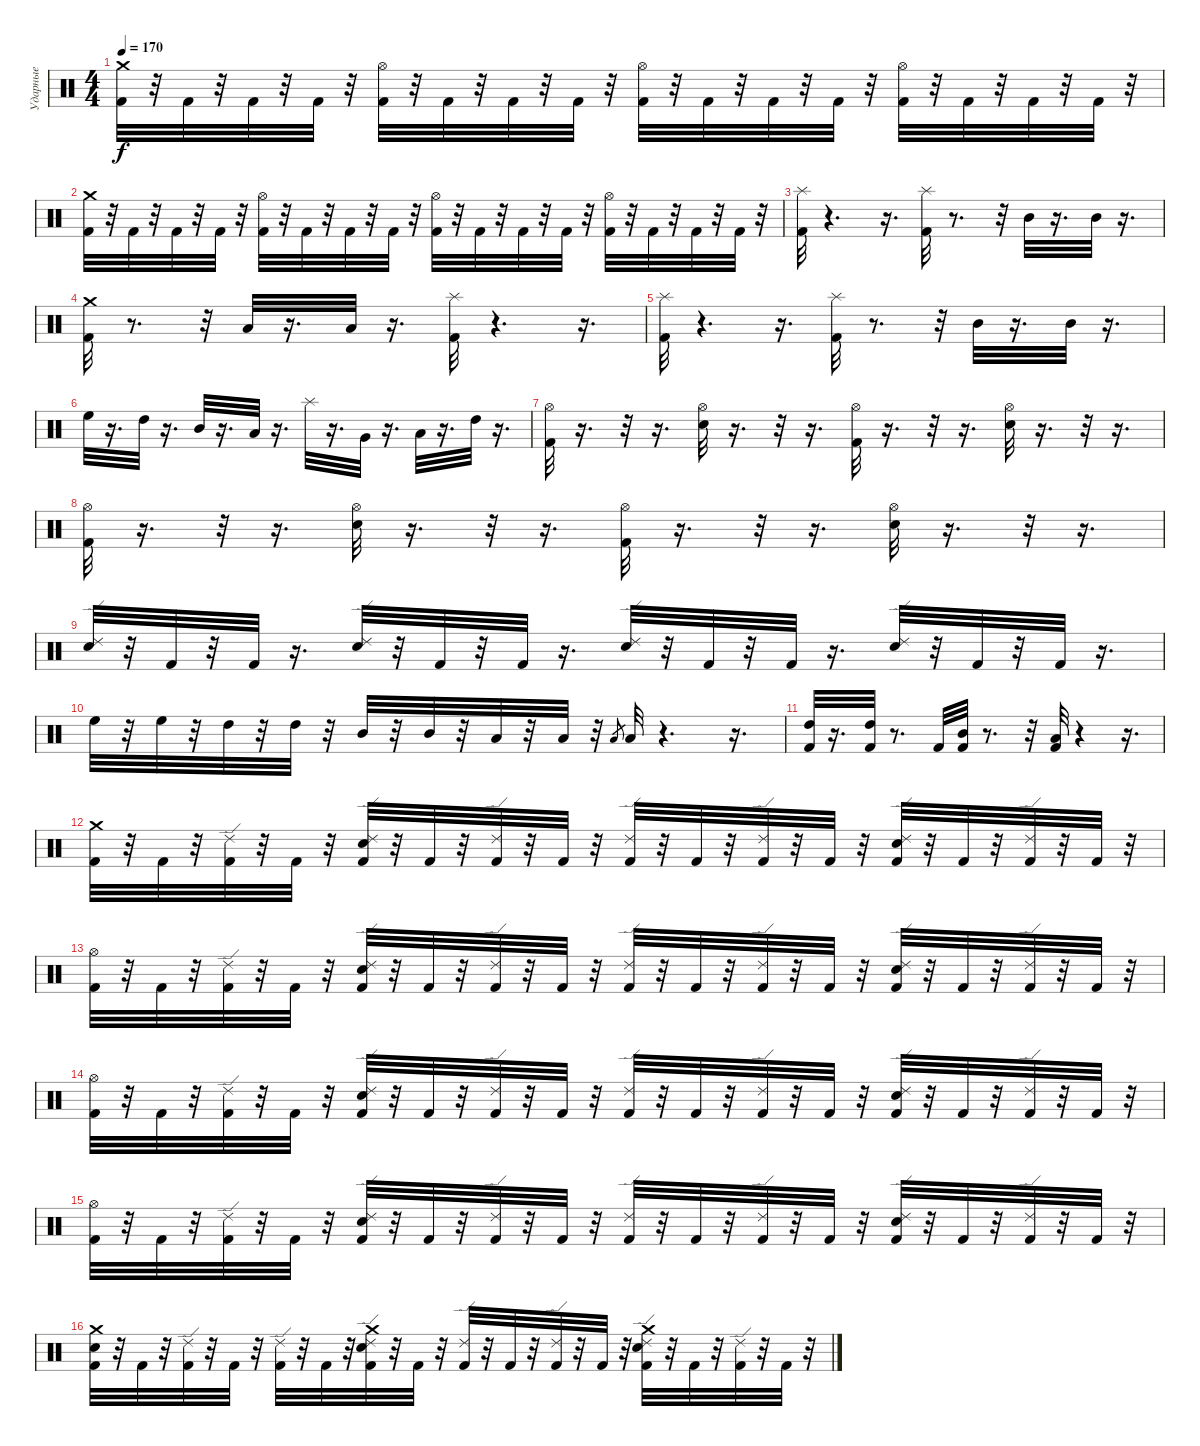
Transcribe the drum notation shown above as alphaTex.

\track ("Ударные" "Ударные") {instrument percussion}
\staff {score}
\articulation defaults
\ts (4 4)
\tempo 170
\clef neutral
\ks c
("Crash medium (hit)" "Kick (hit) 2").32{dy f} r.32 "Kick (hit) 2".32 r.32 "Kick (hit) 2".32 r.32 "Kick (hit) 2".32 r.32 ("Hi-Hat (open)" "Kick (hit) 2").32 r.32 "Kick (hit) 2".32 r.32 "Kick (hit) 2".32 r.32 "Kick (hit) 2".32 r.32 ("Hi-Hat (open)" "Kick (hit) 2").32 r.32 "Kick (hit) 2".32 r.32 "Kick (hit) 2".32 r.32 "Kick (hit) 2".32 r.32 ("Hi-Hat (open)" "Kick (hit) 2").32 r.32 "Kick (hit) 2".32 r.32 "Kick (hit) 2".32 r.32 "Kick (hit) 2".32 r.32 |
("Crash medium (hit)" "Kick (hit) 2").32 r.32 "Kick (hit) 2".32 r.32 "Kick (hit) 2".32 r.32 "Kick (hit) 2".32 r.32 ("Hi-Hat (open)" "Kick (hit) 2").32 r.32 "Kick (hit) 2".32 r.32 "Kick (hit) 2".32 r.32 "Kick (hit) 2".32 r.32 ("Hi-Hat (open)" "Kick (hit) 2").32 r.32 "Kick (hit) 2".32 r.32 "Kick (hit) 2".32 r.32 "Kick (hit) 2".32 r.32 ("Hi-Hat (open)" "Kick (hit) 2").32 r.32 "Kick (hit) 2".32 r.32 "Kick (hit) 2".32 r.32 "Kick (hit) 2".32 r.32 |
("Splash (hit)" "Kick (hit) 2").32 r.4{d} r.16{d} ("Splash (hit)" "Kick (hit) 2").32 r.8{d} r.32 "Mid Tom (hit)".32 r.16{d} "Mid Tom (hit)".32 r.16{d} |
("Crash medium (hit)" "Kick (hit) 2").32 r.8{d} r.32 "Low Tom (hit)".32 r.16{d} "Low Tom (hit)".32 r.16{d} ("Splash (hit)" "Kick (hit) 2").32 r.4{d} r.16{d} |
("Splash (hit)" "Kick (hit) 2").32 r.4{d} r.16{d} ("Splash (hit)" "Kick (hit) 2").32 r.8{d} r.32 "Mid Tom (hit)".32 r.16{d} "Mid Tom (hit)".32 r.16{d} |
"High Floor Tom (hit)".32 r.16{d} "High Tom (hit)".32 r.16{d} "Mid Tom (hit)".32 r.16{d} "Low Tom (hit)".32 r.16{d} "Splash (hit)".32 r.16{d} "Very Low Tom (hit)".32 r.16{d} "Low Tom (hit)".32 r.16{d} "High Tom (hit)".32 r.16{d} |
("Hi-Hat (open)" "Kick (hit) 2").32 r.16{d} r.32 r.16{d} ("Hi-Hat (open)" "Snare (hit) 2").32 r.16{d} r.32 r.16{d} ("Hi-Hat (open)" "Kick (hit) 2").32 r.16{d} r.32 r.16{d} ("Hi-Hat (open)" "Snare (hit) 2").32 r.16{d} r.32 r.16{d} |
("Hi-Hat (open)" "Kick (hit) 2").32 r.16{d} r.32 r.16{d} ("Hi-Hat (open)" "Snare (hit) 2").32 r.16{d} r.32 r.16{d} ("Hi-Hat (open)" "Kick (hit) 2").32 r.16{d} r.32 r.16{d} ("Hi-Hat (open)" "Snare (hit) 2").32 r.16{d} r.32 r.16{d} |
("Electric Snare (hit)" "Ride (edge) 2").32 r.32 "Kick (hit) 2".32 r.32 "Kick (hit) 2".32 r.16{d} ("Electric Snare (hit)" "Ride (edge) 2").32 r.32 "Kick (hit) 2".32 r.32 "Kick (hit) 2".32 r.16{d} ("Electric Snare (hit)" "Ride (edge) 2").32 r.32 "Kick (hit) 2".32 r.32 "Kick (hit) 2".32 r.16{d} ("Electric Snare (hit)" "Ride (edge) 2").32 r.32 "Kick (hit) 2".32 r.32 "Kick (hit) 2".32 r.16{d} |
"High Floor Tom (hit)".32 r.32 "High Floor Tom (hit)".32 r.32 "High Tom (hit)".32 r.32 "High Tom (hit)".32 r.32 "Mid Tom (hit)".32 r.32 "Mid Tom (hit)".32 r.32 "Low Tom (hit)".32 r.32 "Low Tom (hit)".32 r.32 "Low Tom (hit)".8{gr} "Low Tom (hit)".32 r.4{d} r.16{d} |
("High Tom (hit)" "Kick (hit) 2").32 r.16{d} ("High Tom (hit)" "Kick (hit) 2").32 r.8{d} "Kick (hit) 2".32 ("Mid Tom (hit)" "Kick (hit) 2").32 r.8{d} r.32 ("Low Tom (hit)" "Kick (hit) 2").32 r.4 r.16{d} |
("Crash medium (hit)" "Kick (hit) 2").32 r.32 "Kick (hit) 2".32 r.32 ("Ride (edge) 2" "Kick (hit) 2").32 r.32 "Kick (hit) 2".32 r.32 ("Ride (edge) 2" "Electric Snare (hit)" "Kick (hit) 2").32 r.32 "Kick (hit) 2".32 r.32 ("Ride (edge) 2" "Kick (hit) 2").32 r.32 "Kick (hit) 2".32 r.32 ("Ride (edge) 2" "Kick (hit) 2").32 r.32 "Kick (hit) 2".32 r.32 ("Ride (edge) 2" "Kick (hit) 2").32 r.32 "Kick (hit) 2".32 r.32 ("Ride (edge) 2" "Electric Snare (hit)" "Kick (hit) 2").32 r.32 "Kick (hit) 2".32 r.32 ("Ride (edge) 2" "Kick (hit) 2").32 r.32 "Kick (hit) 2".32 r.32 |
("Hi-Hat (open)" "Kick (hit) 2").32 r.32 "Kick (hit) 2".32 r.32 ("Ride (edge) 2" "Kick (hit) 2").32 r.32 "Kick (hit) 2".32 r.32 ("Ride (edge) 2" "Electric Snare (hit)" "Kick (hit) 2").32 r.32 "Kick (hit) 2".32 r.32 ("Ride (edge) 2" "Kick (hit) 2").32 r.32 "Kick (hit) 2".32 r.32 ("Ride (edge) 2" "Kick (hit) 2").32 r.32 "Kick (hit) 2".32 r.32 ("Ride (edge) 2" "Kick (hit) 2").32 r.32 "Kick (hit) 2".32 r.32 ("Ride (edge) 2" "Electric Snare (hit)" "Kick (hit) 2").32 r.32 "Kick (hit) 2".32 r.32 ("Ride (edge) 2" "Kick (hit) 2").32 r.32 "Kick (hit) 2".32 r.32 |
("Hi-Hat (open)" "Kick (hit) 2").32 r.32 "Kick (hit) 2".32 r.32 ("Ride (edge) 2" "Kick (hit) 2").32 r.32 "Kick (hit) 2".32 r.32 ("Ride (edge) 2" "Electric Snare (hit)" "Kick (hit) 2").32 r.32 "Kick (hit) 2".32 r.32 ("Ride (edge) 2" "Kick (hit) 2").32 r.32 "Kick (hit) 2".32 r.32 ("Ride (edge) 2" "Kick (hit) 2").32 r.32 "Kick (hit) 2".32 r.32 ("Ride (edge) 2" "Kick (hit) 2").32 r.32 "Kick (hit) 2".32 r.32 ("Ride (edge) 2" "Electric Snare (hit)" "Kick (hit) 2").32 r.32 "Kick (hit) 2".32 r.32 ("Ride (edge) 2" "Kick (hit) 2").32 r.32 "Kick (hit) 2".32 r.32 |
("Hi-Hat (open)" "Kick (hit) 2").32 r.32 "Kick (hit) 2".32 r.32 ("Ride (edge) 2" "Kick (hit) 2").32 r.32 "Kick (hit) 2".32 r.32 ("Ride (edge) 2" "Electric Snare (hit)" "Kick (hit) 2").32 r.32 "Kick (hit) 2".32 r.32 ("Ride (edge) 2" "Kick (hit) 2").32 r.32 "Kick (hit) 2".32 r.32 ("Ride (edge) 2" "Kick (hit) 2").32 r.32 "Kick (hit) 2".32 r.32 ("Ride (edge) 2" "Kick (hit) 2").32 r.32 "Kick (hit) 2".32 r.32 ("Ride (edge) 2" "Electric Snare (hit)" "Kick (hit) 2").32 r.32 "Kick (hit) 2".32 r.32 ("Ride (edge) 2" "Kick (hit) 2").32 r.32 "Kick (hit) 2".32 r.32 |
("Crash medium (hit)" "Electric Snare (hit)" "Kick (hit) 2").32 r.32 "Kick (hit) 2".32 r.32 ("Ride (edge) 2" "Kick (hit) 2").32 r.32 "Kick (hit) 2".32 r.32 ("Ride (edge) 2" "Kick (hit) 2").32 r.32 "Kick (hit) 2".32 r.32 ("Crash medium (hit)" "Ride (edge) 2" "Electric Snare (hit)" "Kick (hit) 2").32 r.32 "Kick (hit) 2".32 r.32 ("Ride (edge) 2" "Kick (hit) 2").32 r.32 "Kick (hit) 2".32 r.32 ("Ride (edge) 2" "Kick (hit) 2").32 r.32 "Kick (hit) 2".32 r.32 ("Crash medium (hit)" "Ride (edge) 2" "Electric Snare (hit)" "Kick (hit) 2").32 r.32 "Kick (hit) 2".32 r.32 ("Ride (edge) 2" "Kick (hit) 2").32 r.32 "Kick (hit) 2".32 r.32
